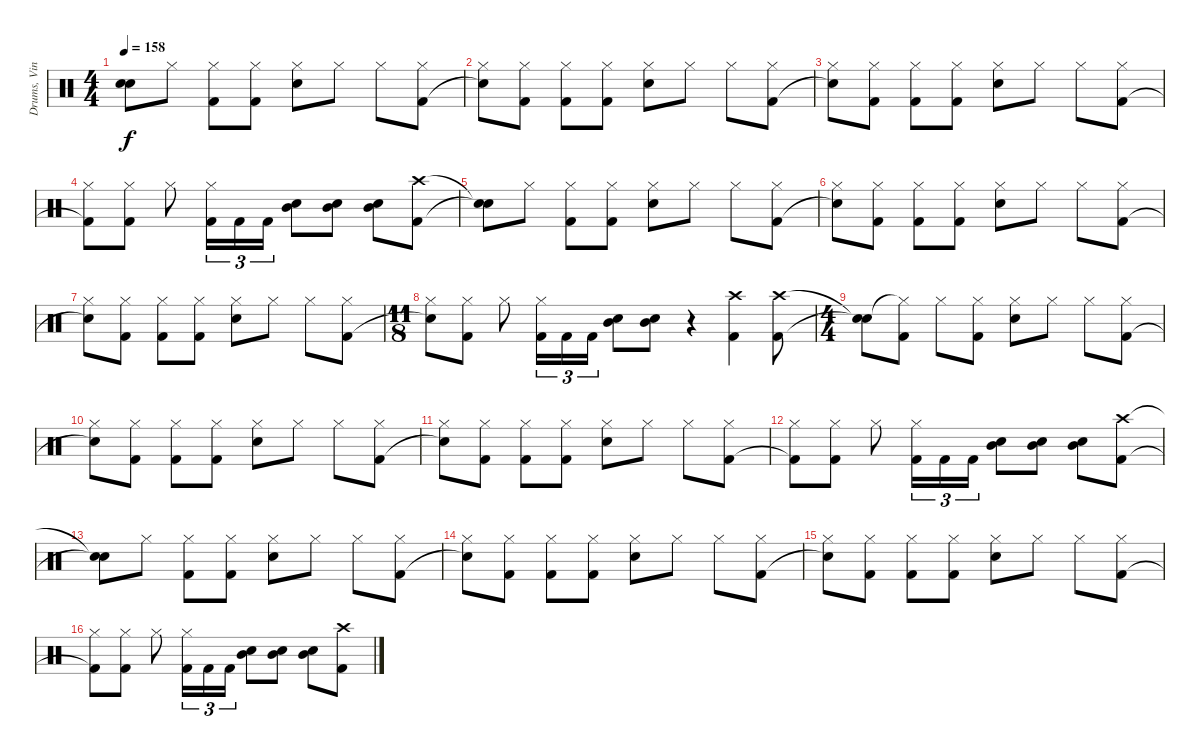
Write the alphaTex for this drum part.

\track ("Drums, Vinnie" "Drums, Vin") {instrument percussion}
\staff {score}
\articulation defaults
\ts (4 4)
\tempo 158
\clef neutral
\ks c
("Snare (hit)"{t} "Snare (hit)"{t}).8{dy f} "Hi-Hat (closed)".8 ("Hi-Hat (closed)" "Kick (hit) 2").8 ("Hi-Hat (closed)" "Kick (hit) 2").8 ("Hi-Hat (closed)" "Electric Snare (hit)").8 "Hi-Hat (closed)".8 "Hi-Hat (closed)".8 ("Hi-Hat (closed)" "Kick (hit) 2").8 |
("Hi-Hat (closed)" "Snare (hit)"{t}).8 ("Hi-Hat (closed)" "Kick (hit) 2").8 ("Hi-Hat (closed)" "Kick (hit) 2").8 ("Hi-Hat (closed)" "Kick (hit) 2").8 ("Hi-Hat (closed)" "Electric Snare (hit)").8 "Hi-Hat (closed)".8 "Hi-Hat (closed)".8 ("Hi-Hat (closed)" "Kick (hit) 2").8 |
("Hi-Hat (closed)" "Snare (hit)"{t}).8 ("Hi-Hat (closed)" "Kick (hit) 2").8 ("Hi-Hat (closed)" "Kick (hit) 2").8 ("Hi-Hat (closed)" "Kick (hit) 2").8 ("Hi-Hat (closed)" "Electric Snare (hit)").8 "Hi-Hat (closed)".8 "Hi-Hat (closed)".8 ("Hi-Hat (closed)" "Kick (hit) 2").8 |
("Hi-Hat (closed)" "Kick (hit) 2"{t}).8 ("Hi-Hat (closed)" "Kick (hit) 2").8 "Hi-Hat (closed)".8 ("Hi-Hat (closed)" "Kick (hit) 2").16{tu (3 2)} "Kick (hit) 2".16{tu (3 2)} "Kick (hit) 2".16{tu (3 2)} ("Electric Snare (hit)" "Mid Tom (hit)").8 ("Electric Snare (hit)" "Mid Tom (hit)").8 ("Electric Snare (hit)" "Mid Tom (hit)").8 ("Crash high (hit)" "Kick (hit) 2").8 |
("Snare (hit)"{t} "Snare (hit)"{t}).8 "Hi-Hat (closed)".8 ("Hi-Hat (closed)" "Kick (hit) 2").8 ("Hi-Hat (closed)" "Kick (hit) 2").8 ("Hi-Hat (closed)" "Electric Snare (hit)").8 "Hi-Hat (closed)".8 "Hi-Hat (closed)".8 ("Hi-Hat (closed)" "Kick (hit) 2").8 |
("Hi-Hat (closed)" "Snare (hit)"{t}).8 ("Hi-Hat (closed)" "Kick (hit) 2").8 ("Hi-Hat (closed)" "Kick (hit) 2").8 ("Hi-Hat (closed)" "Kick (hit) 2").8 ("Hi-Hat (closed)" "Electric Snare (hit)").8 "Hi-Hat (closed)".8 "Hi-Hat (closed)".8 ("Hi-Hat (closed)" "Kick (hit) 2").8 |
("Hi-Hat (closed)" "Snare (hit)"{t}).8 ("Hi-Hat (closed)" "Kick (hit) 2").8 ("Hi-Hat (closed)" "Kick (hit) 2").8 ("Hi-Hat (closed)" "Kick (hit) 2").8 ("Hi-Hat (closed)" "Electric Snare (hit)").8 "Hi-Hat (closed)".8 "Hi-Hat (closed)".8 ("Hi-Hat (closed)" "Kick (hit) 2").8 |
\ts (11 8)
("Hi-Hat (closed)" "Snare (hit)"{t}).8 ("Hi-Hat (closed)" "Kick (hit) 2").8 "Hi-Hat (closed)".8 ("Hi-Hat (closed)" "Kick (hit) 2").16{tu (3 2)} "Kick (hit) 2".16{tu (3 2)} "Kick (hit) 2".16{tu (3 2)} ("Electric Snare (hit)" "Mid Tom (hit)").8 ("Electric Snare (hit)" "Mid Tom (hit)").8 r.4 ("Crash high (hit)" "Kick (hit) 2").4 ("Crash high (hit)" "Kick (hit) 2").8 |
\ts (4 4)
("Snare (hit)"{t} "Snare (hit)"{t}).8 ("Hi-Hat (closed)"{t} "Kick (hit) 2").8 "Hi-Hat (closed)".8 ("Hi-Hat (closed)" "Kick (hit) 2").8 ("Hi-Hat (closed)" "Electric Snare (hit)").8 "Hi-Hat (closed)".8 "Hi-Hat (closed)".8 ("Hi-Hat (closed)" "Kick (hit) 2").8 |
("Hi-Hat (closed)" "Snare (hit)"{t}).8 ("Hi-Hat (closed)" "Kick (hit) 2").8 ("Hi-Hat (closed)" "Kick (hit) 2").8 ("Hi-Hat (closed)" "Kick (hit) 2").8 ("Hi-Hat (closed)" "Electric Snare (hit)").8 "Hi-Hat (closed)".8 "Hi-Hat (closed)".8 ("Hi-Hat (closed)" "Kick (hit) 2").8 |
("Hi-Hat (closed)" "Snare (hit)"{t}).8 ("Hi-Hat (closed)" "Kick (hit) 2").8 ("Hi-Hat (closed)" "Kick (hit) 2").8 ("Hi-Hat (closed)" "Kick (hit) 2").8 ("Hi-Hat (closed)" "Electric Snare (hit)").8 "Hi-Hat (closed)".8 "Hi-Hat (closed)".8 ("Hi-Hat (closed)" "Kick (hit) 2").8 |
("Hi-Hat (closed)" "Kick (hit) 2"{t}).8 ("Hi-Hat (closed)" "Kick (hit) 2").8 "Hi-Hat (closed)".8 ("Hi-Hat (closed)" "Kick (hit) 2").16{tu (3 2)} "Kick (hit) 2".16{tu (3 2)} "Kick (hit) 2".16{tu (3 2)} ("Electric Snare (hit)" "Mid Tom (hit)").8 ("Electric Snare (hit)" "Mid Tom (hit)").8 ("Electric Snare (hit)" "Mid Tom (hit)").8 ("Crash high (hit)" "Kick (hit) 2").8 |
("Snare (hit)"{t} "Snare (hit)"{t}).8 "Hi-Hat (closed)".8 ("Hi-Hat (closed)" "Kick (hit) 2").8 ("Hi-Hat (closed)" "Kick (hit) 2").8 ("Hi-Hat (closed)" "Electric Snare (hit)").8 "Hi-Hat (closed)".8 "Hi-Hat (closed)".8 ("Hi-Hat (closed)" "Kick (hit) 2").8 |
("Hi-Hat (closed)" "Snare (hit)"{t}).8 ("Hi-Hat (closed)" "Kick (hit) 2").8 ("Hi-Hat (closed)" "Kick (hit) 2").8 ("Hi-Hat (closed)" "Kick (hit) 2").8 ("Hi-Hat (closed)" "Electric Snare (hit)").8 "Hi-Hat (closed)".8 "Hi-Hat (closed)".8 ("Hi-Hat (closed)" "Kick (hit) 2").8 |
("Hi-Hat (closed)" "Snare (hit)"{t}).8 ("Hi-Hat (closed)" "Kick (hit) 2").8 ("Hi-Hat (closed)" "Kick (hit) 2").8 ("Hi-Hat (closed)" "Kick (hit) 2").8 ("Hi-Hat (closed)" "Electric Snare (hit)").8 "Hi-Hat (closed)".8 "Hi-Hat (closed)".8 ("Hi-Hat (closed)" "Kick (hit) 2").8 |
("Hi-Hat (closed)" "Kick (hit) 2"{t}).8 ("Hi-Hat (closed)" "Kick (hit) 2").8 "Hi-Hat (closed)".8 ("Hi-Hat (closed)" "Kick (hit) 2").16{tu (3 2)} "Kick (hit) 2".16{tu (3 2)} "Kick (hit) 2".16{tu (3 2)} ("Electric Snare (hit)" "Mid Tom (hit)").8 ("Electric Snare (hit)" "Mid Tom (hit)").8 ("Electric Snare (hit)" "Mid Tom (hit)").8 ("Crash high (hit)" "Kick (hit) 2").8
